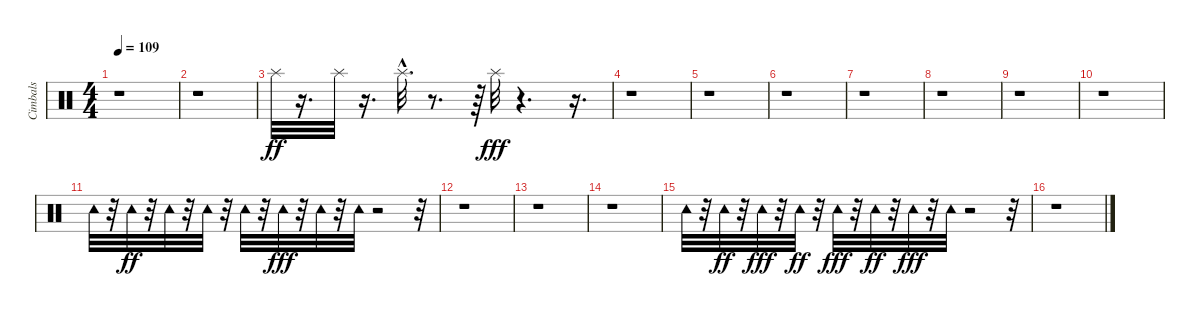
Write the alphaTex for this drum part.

\track ("Cimbals" "Cimbals") {instrument percussion}
\staff {score}
\articulation defaults
\ts (4 4)
\tempo 109
\clef neutral
\ks c
r.1{dy fff} |
r.1 |
"Splash (hit)".32{dy ff} r.16{d} "Splash (hit)".32 r.16{d} "Splash (hit)"{hac}.32{d} r.8{d} r.64 "Splash (hit)".32{dy fff} r.4{d} r.16{d} |
r.1 |
r.1 |
r.1 |
r.1 |
r.1 |
r.1 |
r.1 |
"Tambourine (hit)".32 r.32 "Tambourine (hit)".32{dy ff} r.32 "Tambourine (hit)".32 r.32 "Tambourine (hit)".32 r.32 "Tambourine (hit)".32 r.32 "Tambourine (hit)".32{dy fff} r.32 "Tambourine (hit)".32 r.32 "Tambourine (hit)".32 r.2 r.32 |
r.1 |
r.1 |
r.1 |
"Tambourine (hit)".32 r.32 "Tambourine (hit)".32{dy ff} r.32 "Tambourine (hit)".32{dy fff} r.32 "Tambourine (hit)".32{dy ff} r.32 "Tambourine (hit)".32{dy fff} r.32 "Tambourine (hit)".32{dy ff} r.32 "Tambourine (hit)".32{dy fff} r.32 "Tambourine (hit)".32 r.2 r.32 |
r.1
